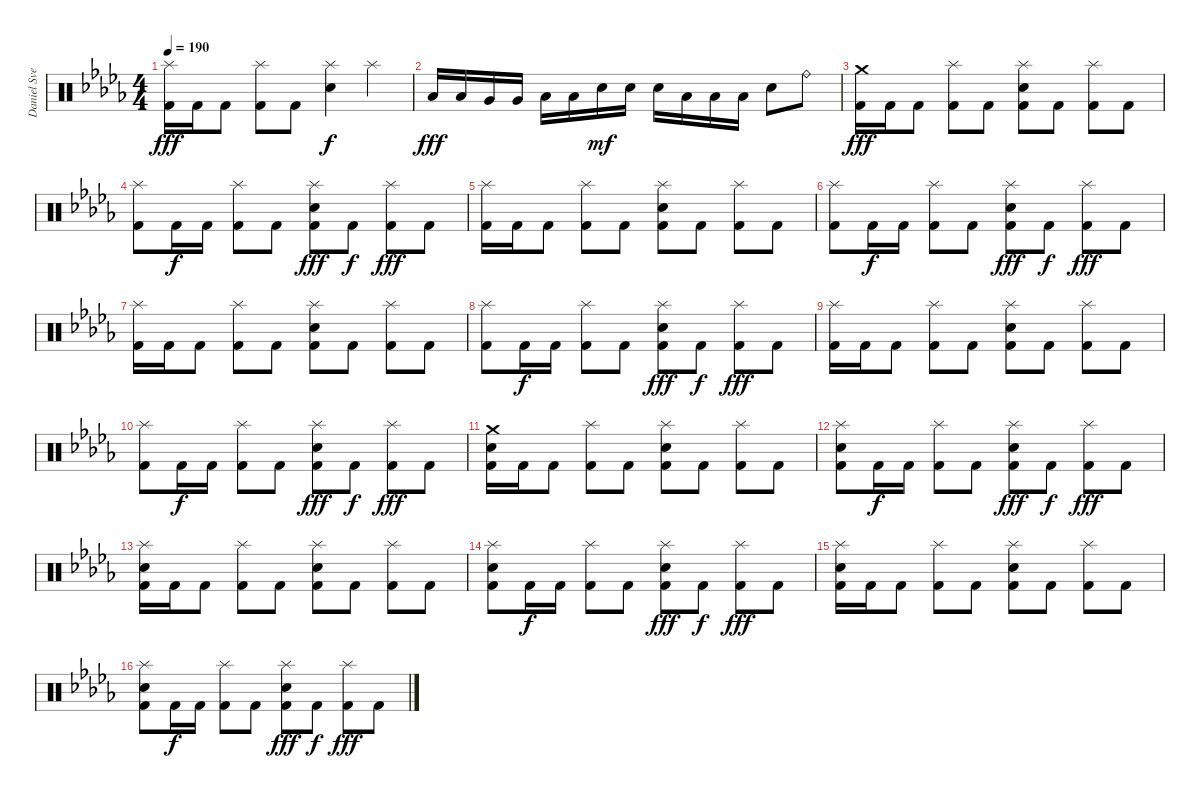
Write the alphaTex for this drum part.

\track ("Daniel Svensson" "Daniel Sve") {instrument percussion}
\staff {score}
\articulation defaults
\ts (4 4)
\tempo 190
\clef neutral
\ks db
("Splash (hit)" "Kick (hit) 2").16{dy fff} "Kick (hit) 2".16 "Kick (hit) 2".8 ("Splash (hit)" "Kick (hit) 2").8 "Kick (hit) 2".8 ("Splash (hit)" "Electric Snare (hit)").4{dy f} "Splash (hit)".4 |
"Low Tom (hit)".16{dy fff} "Low Tom (hit)".16 "Very Low Tom (hit)".16 "Very Low Tom (hit)".16 "Low Floor Tom (hit)".16 "Low Floor Tom (hit)".16 "Electric Snare (hit)".16{dy mf} "Electric Snare (hit)".16 "Electric Snare (hit)".16 "Low Tom (hit)".16 "Low Tom (hit)".16 "Low Tom (hit)".16 "Electric Snare (hit)".8 "Ride (bell)".8 |
("Crash medium (hit)" "Kick (hit) 2").16{dy fff} "Kick (hit) 2".16 "Kick (hit) 2".8 ("Splash (hit)" "Kick (hit) 2").8 "Kick (hit) 2".8 ("Splash (hit)" "Electric Snare (hit)" "Kick (hit) 2").8 "Kick (hit) 2".8 ("Splash (hit)" "Kick (hit) 2").8 "Kick (hit) 2".8 |
("Splash (hit)" "Kick (hit) 2").8 "Kick (hit) 2".16{dy f} "Kick (hit) 2".16 ("Splash (hit)" "Kick (hit) 2").8 "Kick (hit) 2".8 ("Splash (hit)" "Electric Snare (hit)" "Kick (hit) 2").8{dy fff} "Kick (hit) 2".8{dy f} ("Splash (hit)" "Kick (hit) 2").8{dy fff} "Kick (hit) 2".8 |
("Splash (hit)" "Kick (hit) 2").16 "Kick (hit) 2".16 "Kick (hit) 2".8 ("Splash (hit)" "Kick (hit) 2").8 "Kick (hit) 2".8 ("Splash (hit)" "Electric Snare (hit)" "Kick (hit) 2").8 "Kick (hit) 2".8 ("Splash (hit)" "Kick (hit) 2").8 "Kick (hit) 2".8 |
("Splash (hit)" "Kick (hit) 2").8 "Kick (hit) 2".16{dy f} "Kick (hit) 2".16 ("Splash (hit)" "Kick (hit) 2").8 "Kick (hit) 2".8 ("Splash (hit)" "Electric Snare (hit)" "Kick (hit) 2").8{dy fff} "Kick (hit) 2".8{dy f} ("Splash (hit)" "Kick (hit) 2").8{dy fff} "Kick (hit) 2".8 |
("Splash (hit)" "Kick (hit) 2").16 "Kick (hit) 2".16 "Kick (hit) 2".8 ("Splash (hit)" "Kick (hit) 2").8 "Kick (hit) 2".8 ("Splash (hit)" "Electric Snare (hit)" "Kick (hit) 2").8 "Kick (hit) 2".8 ("Splash (hit)" "Kick (hit) 2").8 "Kick (hit) 2".8 |
("Splash (hit)" "Kick (hit) 2").8 "Kick (hit) 2".16{dy f} "Kick (hit) 2".16 ("Splash (hit)" "Kick (hit) 2").8 "Kick (hit) 2".8 ("Splash (hit)" "Electric Snare (hit)" "Kick (hit) 2").8{dy fff} "Kick (hit) 2".8{dy f} ("Splash (hit)" "Kick (hit) 2").8{dy fff} "Kick (hit) 2".8 |
("Splash (hit)" "Kick (hit) 2").16 "Kick (hit) 2".16 "Kick (hit) 2".8 ("Splash (hit)" "Kick (hit) 2").8 "Kick (hit) 2".8 ("Splash (hit)" "Electric Snare (hit)" "Kick (hit) 2").8 "Kick (hit) 2".8 ("Splash (hit)" "Kick (hit) 2").8 "Kick (hit) 2".8 |
("Splash (hit)" "Kick (hit) 2").8 "Kick (hit) 2".16{dy f} "Kick (hit) 2".16 ("Splash (hit)" "Kick (hit) 2").8 "Kick (hit) 2".8 ("Splash (hit)" "Electric Snare (hit)" "Kick (hit) 2").8{dy fff} "Kick (hit) 2".8{dy f} ("Splash (hit)" "Kick (hit) 2").8{dy fff} "Kick (hit) 2".8 |
("Crash medium (hit)" "Electric Snare (hit)" "Kick (hit) 2").16 "Kick (hit) 2".16 "Kick (hit) 2".8 ("Splash (hit)" "Kick (hit) 2").8 "Kick (hit) 2".8 ("Splash (hit)" "Electric Snare (hit)" "Kick (hit) 2").8 "Kick (hit) 2".8 ("Splash (hit)" "Kick (hit) 2").8 "Kick (hit) 2".8 |
("Splash (hit)" "Electric Snare (hit)" "Kick (hit) 2").8 "Kick (hit) 2".16{dy f} "Kick (hit) 2".16 ("Splash (hit)" "Kick (hit) 2").8 "Kick (hit) 2".8 ("Splash (hit)" "Electric Snare (hit)" "Kick (hit) 2").8{dy fff} "Kick (hit) 2".8{dy f} ("Splash (hit)" "Kick (hit) 2").8{dy fff} "Kick (hit) 2".8 |
("Splash (hit)" "Electric Snare (hit)" "Kick (hit) 2").16 "Kick (hit) 2".16 "Kick (hit) 2".8 ("Splash (hit)" "Kick (hit) 2").8 "Kick (hit) 2".8 ("Splash (hit)" "Electric Snare (hit)" "Kick (hit) 2").8 "Kick (hit) 2".8 ("Splash (hit)" "Kick (hit) 2").8 "Kick (hit) 2".8 |
("Splash (hit)" "Electric Snare (hit)" "Kick (hit) 2").8 "Kick (hit) 2".16{dy f} "Kick (hit) 2".16 ("Splash (hit)" "Kick (hit) 2").8 "Kick (hit) 2".8 ("Splash (hit)" "Electric Snare (hit)" "Kick (hit) 2").8{dy fff} "Kick (hit) 2".8{dy f} ("Splash (hit)" "Kick (hit) 2").8{dy fff} "Kick (hit) 2".8 |
("Splash (hit)" "Electric Snare (hit)" "Kick (hit) 2").16 "Kick (hit) 2".16 "Kick (hit) 2".8 ("Splash (hit)" "Kick (hit) 2").8 "Kick (hit) 2".8 ("Splash (hit)" "Electric Snare (hit)" "Kick (hit) 2").8 "Kick (hit) 2".8 ("Splash (hit)" "Kick (hit) 2").8 "Kick (hit) 2".8 |
("Splash (hit)" "Electric Snare (hit)" "Kick (hit) 2").8 "Kick (hit) 2".16{dy f} "Kick (hit) 2".16 ("Splash (hit)" "Kick (hit) 2").8 "Kick (hit) 2".8 ("Splash (hit)" "Electric Snare (hit)" "Kick (hit) 2").8{dy fff} "Kick (hit) 2".8{dy f} ("Splash (hit)" "Kick (hit) 2").8{dy fff} "Kick (hit) 2".8
